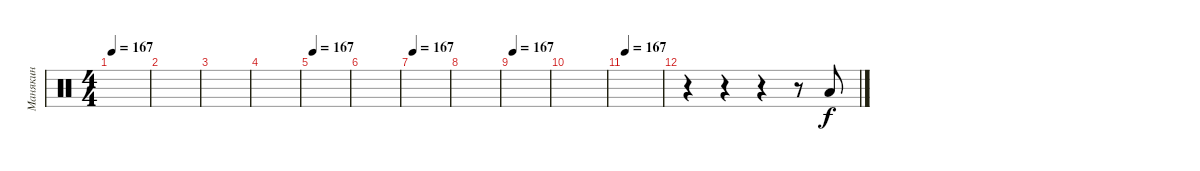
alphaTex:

\track ("Манякин" "Манякин") {instrument percussion}
\staff {score}
\articulation defaults
\ts (4 4)
\tempo 167
\clef neutral
\ks c
|
|
|
|
\tempo 167
|
|
\tempo 167
|
|
\tempo 167
|
|
\tempo 167
|
r.4 r.4 r.4 r.8 "Low Tom (hit)"{tr (45 64)}.8
